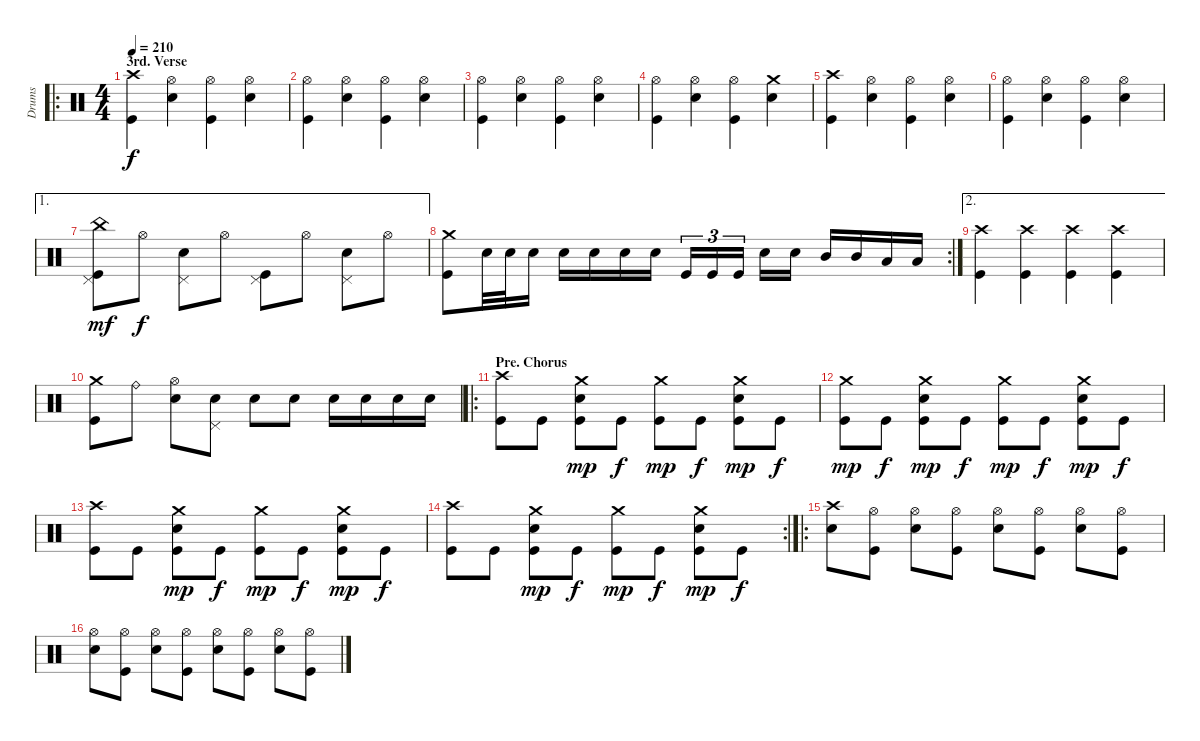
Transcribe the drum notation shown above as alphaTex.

\track ("Drums" "Drums") {instrument percussion}
\staff {score}
\articulation defaults
\ro
\ts (4 4)
\section ("" "3rd. Verse")
\tempo 210
\clef neutral
\ks c
("Crash high (hit)" "Kick (hit)").4{dy f} ("Hi-Hat (open)" "Electric Snare (hit)").4 ("Hi-Hat (open)" "Kick (hit)").4 ("Hi-Hat (open)" "Electric Snare (hit)").4 |
("Hi-Hat (open)" "Kick (hit)").4 ("Hi-Hat (open)" "Electric Snare (hit)").4 ("Hi-Hat (open)" "Kick (hit)").4 ("Hi-Hat (open)" "Electric Snare (hit)").4 |
("Hi-Hat (open)" "Kick (hit)").4 ("Hi-Hat (open)" "Electric Snare (hit)").4 ("Hi-Hat (open)" "Kick (hit)").4 ("Hi-Hat (open)" "Electric Snare (hit)").4 |
("Hi-Hat (open)" "Kick (hit)").4 ("Hi-Hat (open)" "Electric Snare (hit)").4 ("Hi-Hat (open)" "Kick (hit)").4 ("Crash medium (hit)" "Electric Snare (hit)").4 |
("Crash high (hit)" "Kick (hit)").4 ("Hi-Hat (open)" "Electric Snare (hit)").4 ("Hi-Hat (open)" "Kick (hit)").4 ("Hi-Hat (open)" "Electric Snare (hit)").4 |
("Hi-Hat (open)" "Kick (hit)").4 ("Hi-Hat (open)" "Electric Snare (hit)").4 ("Hi-Hat (open)" "Kick (hit)").4 ("Hi-Hat (open)" "Electric Snare (hit)").4 |
\ae 1
("China (hit)" "Pedal Hi-Hat (hit)" "Kick (hit)").8{dy mf} "Hi-Hat (open)".8{dy f} ("Pedal Hi-Hat (hit)" "Electric Snare (hit)").8 "Hi-Hat (open)".8 ("Pedal Hi-Hat (hit)" "Kick (hit)").8 "Hi-Hat (open)".8 ("Pedal Hi-Hat (hit)" "Electric Snare (hit)").8 "Hi-Hat (open)".8 |
\rc 2
("Crash medium (hit)" "Kick (hit)").8 "Electric Snare (hit)".32 "Electric Snare (hit)".32 "Electric Snare (hit)".16 "Electric Snare (hit)".16 "Electric Snare (hit)".16 "Electric Snare (hit)".16 "Electric Snare (hit)".16 "Kick (hit)".16{tu (3 2)} "Kick (hit)".16{tu (3 2)} "Kick (hit)".16{tu (3 2)} "Electric Snare (hit)".16 "Electric Snare (hit)".16 "Mid Tom (hit)".16 "Mid Tom (hit)".16 "Low Tom (hit)".16 "Low Tom (hit)".16 |
\ae 2
("Crash high (hit)" "Kick (hit)").4 ("Crash high (hit)" "Kick (hit)").4 ("Crash high (hit)" "Kick (hit)").4 ("Crash high (hit)" "Kick (hit)").4 |
("Crash medium (hit)" "Kick (hit)").8 "Ride (bell)".8 ("Hi-Hat (open)" "Electric Snare (hit)").8 ("Pedal Hi-Hat (hit)" "Electric Snare (hit)").8 "Electric Snare (hit)".8 "Electric Snare (hit)".8 "Electric Snare (hit)".16 "Electric Snare (hit)".16 "Electric Snare (hit)".16 "Electric Snare (hit)".16 |
\ro
\section ("" "Pre. Chorus")
("Crash high (hit)" "Kick (hit)").8 "Kick (hit)".8 ("Crash medium (hit)" "Electric Snare (hit)" "Kick (hit)").8{dy mp} "Kick (hit)".8{dy f} ("Crash medium (hit)" "Kick (hit)").8{dy mp} "Kick (hit)".8{dy f} ("Crash medium (hit)" "Electric Snare (hit)" "Kick (hit)").8{dy mp} "Kick (hit)".8{dy f} |
("Crash medium (hit)" "Kick (hit)").8{dy mp} "Kick (hit)".8{dy f} ("Crash medium (hit)" "Electric Snare (hit)" "Kick (hit)").8{dy mp} "Kick (hit)".8{dy f} ("Crash medium (hit)" "Kick (hit)").8{dy mp} "Kick (hit)".8{dy f} ("Crash medium (hit)" "Electric Snare (hit)" "Kick (hit)").8{dy mp} "Kick (hit)".8{dy f} |
("Crash high (hit)" "Kick (hit)").8 "Kick (hit)".8 ("Crash medium (hit)" "Electric Snare (hit)" "Kick (hit)").8{dy mp} "Kick (hit)".8{dy f} ("Crash medium (hit)" "Kick (hit)").8{dy mp} "Kick (hit)".8{dy f} ("Crash medium (hit)" "Electric Snare (hit)" "Kick (hit)").8{dy mp} "Kick (hit)".8{dy f} |
\rc 2
("Crash high (hit)" "Kick (hit)").8 "Kick (hit)".8 ("Crash medium (hit)" "Electric Snare (hit)" "Kick (hit)").8{dy mp} "Kick (hit)".8{dy f} ("Crash medium (hit)" "Kick (hit)").8{dy mp} "Kick (hit)".8{dy f} ("Crash medium (hit)" "Electric Snare (hit)" "Kick (hit)").8{dy mp} "Kick (hit)".8{dy f} |
\ro
("Crash high (hit)" "Electric Snare (hit)").8 ("Hi-Hat (open)" "Kick (hit)").8 ("Hi-Hat (open)" "Electric Snare (hit)").8 ("Hi-Hat (open)" "Kick (hit)").8 ("Hi-Hat (open)" "Electric Snare (hit)").8 ("Hi-Hat (open)" "Kick (hit)").8 ("Hi-Hat (open)" "Electric Snare (hit)").8 ("Hi-Hat (open)" "Kick (hit)").8 |
("Hi-Hat (open)" "Electric Snare (hit)").8 ("Hi-Hat (open)" "Kick (hit)").8 ("Hi-Hat (open)" "Electric Snare (hit)").8 ("Hi-Hat (open)" "Kick (hit)").8 ("Hi-Hat (open)" "Electric Snare (hit)").8 ("Hi-Hat (open)" "Kick (hit)").8 ("Hi-Hat (open)" "Electric Snare (hit)").8 ("Hi-Hat (open)" "Kick (hit)").8
